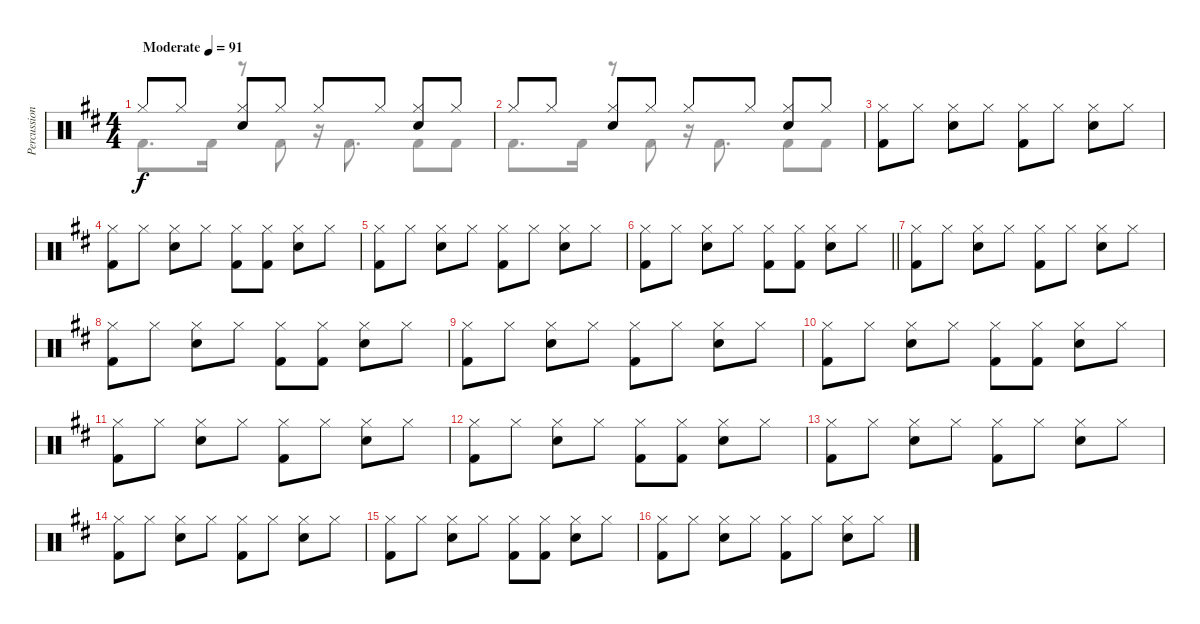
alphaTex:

\track ("Percussion" "Percussion") {instrument percussion}
\staff {score}
\articulation defaults
\voice
\ts (4 4)
\tempo (91 "Moderate")
\clef neutral
\ks d "Hi-Hat (closed)".8{dy f} "Hi-Hat (closed)".8
("Hi-Hat (closed)" "Snare (hit) 2").8 "Hi-Hat (closed)".8 "Hi-Hat (closed)".8 "Hi-Hat (closed)".8 ("Hi-Hat (closed)" "Snare (hit) 2").8 "Hi-Hat (closed)".8 |
"Hi-Hat (closed)".8 "Hi-Hat (closed)".8 ("Hi-Hat (closed)" "Snare (hit) 2").8 "Hi-Hat (closed)".8 "Hi-Hat (closed)".8 "Hi-Hat (closed)".8 ("Hi-Hat (closed)" "Snare (hit) 2").8 "Hi-Hat (closed)".8 |
("Hi-Hat (closed)" "Kick (hit) 2").8 "Hi-Hat (closed)".8 ("Hi-Hat (closed)" "Snare (hit) 2").8 "Hi-Hat (closed)".8 ("Hi-Hat (closed)" "Kick (hit) 2").8 "Hi-Hat (closed)".8 ("Hi-Hat (closed)" "Snare (hit) 2").8 "Hi-Hat (closed)".8 |
("Hi-Hat (closed)" "Kick (hit) 2").8 "Hi-Hat (closed)".8 ("Hi-Hat (closed)" "Snare (hit) 2").8 "Hi-Hat (closed)".8 ("Hi-Hat (closed)" "Kick (hit) 2").8 ("Hi-Hat (closed)" "Kick (hit) 2").8 ("Hi-Hat (closed)" "Snare (hit) 2").8 "Hi-Hat (closed)".8 |
("Hi-Hat (closed)" "Kick (hit) 2").8 "Hi-Hat (closed)".8 ("Hi-Hat (closed)" "Snare (hit) 2").8 "Hi-Hat (closed)".8 ("Hi-Hat (closed)" "Kick (hit) 2").8 "Hi-Hat (closed)".8 ("Hi-Hat (closed)" "Snare (hit) 2").8 "Hi-Hat (closed)".8 |
\barLineRight lightlight
("Hi-Hat (closed)" "Kick (hit) 2").8 "Hi-Hat (closed)".8 ("Hi-Hat (closed)" "Snare (hit) 2").8 "Hi-Hat (closed)".8 ("Hi-Hat (closed)" "Kick (hit) 2").8 ("Hi-Hat (closed)" "Kick (hit) 2").8 ("Hi-Hat (closed)" "Snare (hit) 2").8 "Hi-Hat (closed)".8 |
("Hi-Hat (closed)" "Kick (hit) 2").8 "Hi-Hat (closed)".8 ("Hi-Hat (closed)" "Snare (hit) 2").8 "Hi-Hat (closed)".8 ("Hi-Hat (closed)" "Kick (hit) 2").8 "Hi-Hat (closed)".8 ("Hi-Hat (closed)" "Snare (hit) 2").8 "Hi-Hat (closed)".8 |
("Hi-Hat (closed)" "Kick (hit) 2").8 "Hi-Hat (closed)".8 ("Hi-Hat (closed)" "Snare (hit) 2").8 "Hi-Hat (closed)".8 ("Hi-Hat (closed)" "Kick (hit) 2").8 ("Hi-Hat (closed)" "Kick (hit) 2").8 ("Hi-Hat (closed)" "Snare (hit) 2").8 "Hi-Hat (closed)".8 |
("Hi-Hat (closed)" "Kick (hit) 2").8 "Hi-Hat (closed)".8 ("Hi-Hat (closed)" "Snare (hit) 2").8 "Hi-Hat (closed)".8 ("Hi-Hat (closed)" "Kick (hit) 2").8 "Hi-Hat (closed)".8 ("Hi-Hat (closed)" "Snare (hit) 2").8 "Hi-Hat (closed)".8 |
("Hi-Hat (closed)" "Kick (hit) 2").8 "Hi-Hat (closed)".8 ("Hi-Hat (closed)" "Snare (hit) 2").8 "Hi-Hat (closed)".8 ("Hi-Hat (closed)" "Kick (hit) 2").8 ("Hi-Hat (closed)" "Kick (hit) 2").8 ("Hi-Hat (closed)" "Snare (hit) 2").8 "Hi-Hat (closed)".8 |
("Hi-Hat (closed)" "Kick (hit) 2").8 "Hi-Hat (closed)".8 ("Hi-Hat (closed)" "Snare (hit) 2").8 "Hi-Hat (closed)".8 ("Hi-Hat (closed)" "Kick (hit) 2").8 "Hi-Hat (closed)".8 ("Hi-Hat (closed)" "Snare (hit) 2").8 "Hi-Hat (closed)".8 |
("Hi-Hat (closed)" "Kick (hit) 2").8 "Hi-Hat (closed)".8 ("Hi-Hat (closed)" "Snare (hit) 2").8 "Hi-Hat (closed)".8 ("Hi-Hat (closed)" "Kick (hit) 2").8 ("Hi-Hat (closed)" "Kick (hit) 2").8 ("Hi-Hat (closed)" "Snare (hit) 2").8 "Hi-Hat (closed)".8 |
("Hi-Hat (closed)" "Kick (hit) 2").8 "Hi-Hat (closed)".8 ("Hi-Hat (closed)" "Snare (hit) 2").8 "Hi-Hat (closed)".8 ("Hi-Hat (closed)" "Kick (hit) 2").8 "Hi-Hat (closed)".8 ("Hi-Hat (closed)" "Snare (hit) 2").8 "Hi-Hat (closed)".8 |
("Hi-Hat (closed)" "Kick (hit) 2").8 "Hi-Hat (closed)".8 ("Hi-Hat (closed)" "Snare (hit) 2").8 "Hi-Hat (closed)".8 ("Hi-Hat (closed)" "Kick (hit) 2").8 "Hi-Hat (closed)".8 ("Hi-Hat (closed)" "Snare (hit) 2").8 "Hi-Hat (closed)".8 |
("Hi-Hat (closed)" "Kick (hit) 2").8 "Hi-Hat (closed)".8 ("Hi-Hat (closed)" "Snare (hit) 2").8 "Hi-Hat (closed)".8 ("Hi-Hat (closed)" "Kick (hit) 2").8 ("Hi-Hat (closed)" "Kick (hit) 2").8 ("Hi-Hat (closed)" "Snare (hit) 2").8 "Hi-Hat (closed)".8 |
("Hi-Hat (closed)" "Kick (hit) 2").8 "Hi-Hat (closed)".8 ("Hi-Hat (closed)" "Snare (hit) 2").8 "Hi-Hat (closed)".8 ("Hi-Hat (closed)" "Kick (hit) 2").8 "Hi-Hat (closed)".8 ("Hi-Hat (closed)" "Snare (hit) 2").8 "Hi-Hat (closed)".8
\voice
\clef neutral
\ottava regular
\simile none
\ks d "Kick (hit) 2".8{d dy f} "Kick (hit) 2".16
r.8 "Kick (hit) 2".8 r.16 "Kick (hit) 2".8{d} "Kick (hit) 2".8 "Kick (hit) 2".8 |
"Kick (hit) 2".8{d} "Kick (hit) 2".16 r.8 "Kick (hit) 2".8 r.16 "Kick (hit) 2".8{d} "Kick (hit) 2".8 "Kick (hit) 2".8 |
|
|
|
\barLineRight lightlight
|
|
|
|
|
|
|
|
|
|
